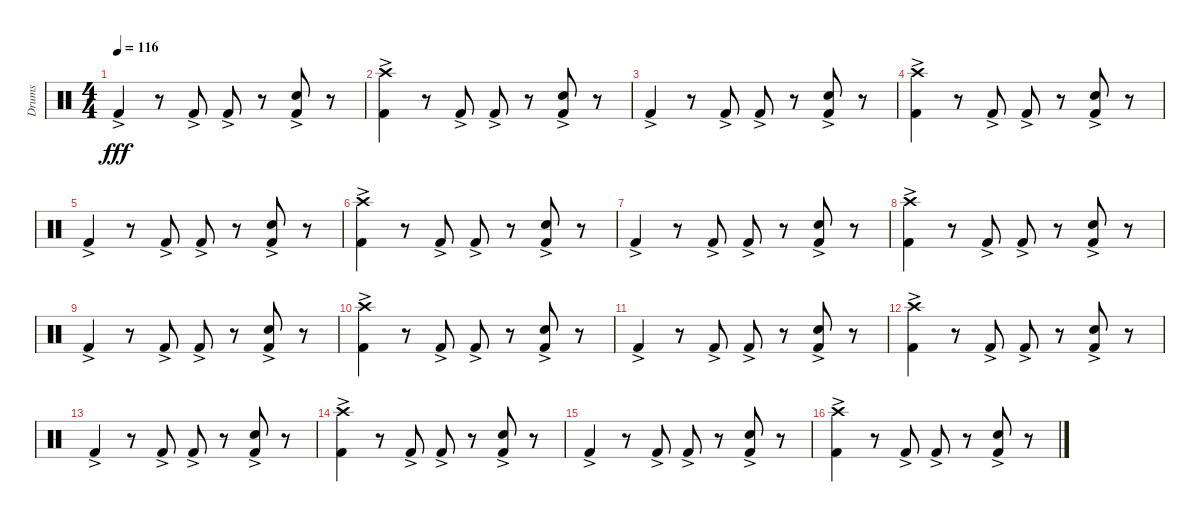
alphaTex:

\track ("Drums" "Drums") {instrument percussion}
\staff {score}
\articulation defaults
\ts (4 4)
\tempo 116
\clef neutral
\ks c "Kick (hit) 2"{ac}.4{dy fff}
r.8 "Kick (hit) 2"{ac}.8 "Kick (hit) 2"{ac}.8 r.8 ("Electric Snare (hit)"{ac} "Kick (hit) 2"{ac}).8 r.8 |
("Crash high (hit)" "Kick (hit) 2"{ac}).4 r.8 "Kick (hit) 2"{ac}.8 "Kick (hit) 2"{ac}.8 r.8 ("Electric Snare (hit)"{ac} "Kick (hit) 2"{ac}).8 r.8 |
"Kick (hit) 2"{ac}.4 r.8 "Kick (hit) 2"{ac}.8 "Kick (hit) 2"{ac}.8 r.8 ("Electric Snare (hit)"{ac} "Kick (hit) 2"{ac}).8 r.8 |
("Crash high (hit)" "Kick (hit) 2"{ac}).4 r.8 "Kick (hit) 2"{ac}.8 "Kick (hit) 2"{ac}.8 r.8 ("Electric Snare (hit)"{ac} "Kick (hit) 2"{ac}).8 r.8 |
"Kick (hit) 2"{ac}.4 r.8 "Kick (hit) 2"{ac}.8 "Kick (hit) 2"{ac}.8 r.8 ("Electric Snare (hit)"{ac} "Kick (hit) 2"{ac}).8 r.8 |
("Crash high (hit)" "Kick (hit) 2"{ac}).4 r.8 "Kick (hit) 2"{ac}.8 "Kick (hit) 2"{ac}.8 r.8 ("Electric Snare (hit)"{ac} "Kick (hit) 2"{ac}).8 r.8 |
"Kick (hit) 2"{ac}.4 r.8 "Kick (hit) 2"{ac}.8 "Kick (hit) 2"{ac}.8 r.8 ("Electric Snare (hit)"{ac} "Kick (hit) 2"{ac}).8 r.8 |
("Crash high (hit)" "Kick (hit) 2"{ac}).4 r.8 "Kick (hit) 2"{ac}.8 "Kick (hit) 2"{ac}.8 r.8 ("Electric Snare (hit)"{ac} "Kick (hit) 2"{ac}).8 r.8 |
"Kick (hit) 2"{ac}.4 r.8 "Kick (hit) 2"{ac}.8 "Kick (hit) 2"{ac}.8 r.8 ("Electric Snare (hit)"{ac} "Kick (hit) 2"{ac}).8 r.8 |
("Crash high (hit)" "Kick (hit) 2"{ac}).4 r.8 "Kick (hit) 2"{ac}.8 "Kick (hit) 2"{ac}.8 r.8 ("Electric Snare (hit)"{ac} "Kick (hit) 2"{ac}).8 r.8 |
"Kick (hit) 2"{ac}.4 r.8 "Kick (hit) 2"{ac}.8 "Kick (hit) 2"{ac}.8 r.8 ("Electric Snare (hit)"{ac} "Kick (hit) 2"{ac}).8 r.8 |
("Crash high (hit)" "Kick (hit) 2"{ac}).4 r.8 "Kick (hit) 2"{ac}.8 "Kick (hit) 2"{ac}.8 r.8 ("Electric Snare (hit)"{ac} "Kick (hit) 2"{ac}).8 r.8 |
"Kick (hit) 2"{ac}.4 r.8 "Kick (hit) 2"{ac}.8 "Kick (hit) 2"{ac}.8 r.8 ("Electric Snare (hit)"{ac} "Kick (hit) 2"{ac}).8 r.8 |
("Crash high (hit)" "Kick (hit) 2"{ac}).4 r.8 "Kick (hit) 2"{ac}.8 "Kick (hit) 2"{ac}.8 r.8 ("Electric Snare (hit)"{ac} "Kick (hit) 2"{ac}).8 r.8 |
"Kick (hit) 2"{ac}.4 r.8 "Kick (hit) 2"{ac}.8 "Kick (hit) 2"{ac}.8 r.8 ("Electric Snare (hit)"{ac} "Kick (hit) 2"{ac}).8 r.8 |
("Crash high (hit)" "Kick (hit) 2"{ac}).4 r.8 "Kick (hit) 2"{ac}.8 "Kick (hit) 2"{ac}.8 r.8 ("Electric Snare (hit)"{ac} "Kick (hit) 2"{ac}).8 r.8
